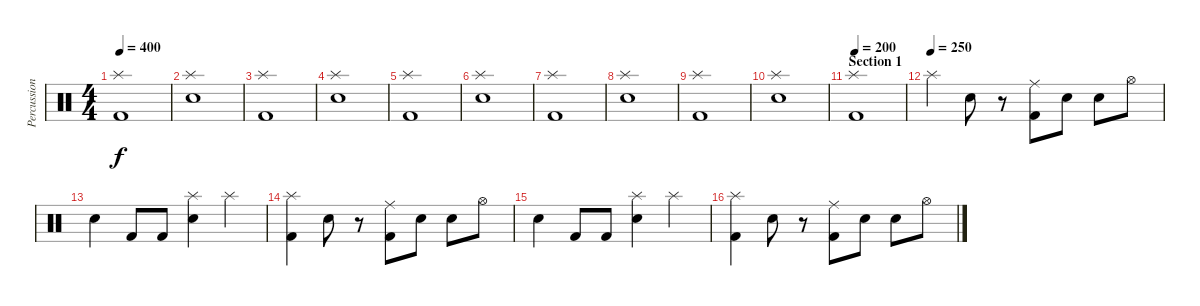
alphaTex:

\track ("Percussions2" "Percussion") {instrument percussion}
\staff {score}
\articulation defaults
\ts (4 4)
\tempo 400
\clef neutral
\ks c
("Splash (hit)" "Kick (hit) 2").1{dy f} |
("Snare (hit) 2" "Splash (hit)").1 |
("Splash (hit)" "Kick (hit) 2").1 |
("Snare (hit) 2" "Splash (hit)").1 |
("Splash (hit)" "Kick (hit) 2").1 |
("Snare (hit) 2" "Splash (hit)").1 |
("Splash (hit)" "Kick (hit) 2").1 |
("Snare (hit) 2" "Splash (hit)").1 |
("Splash (hit)" "Kick (hit) 2").1 |
("Snare (hit) 2" "Splash (hit)").1 |
\section ("" "Section 1")
\tempo 200
("Splash (hit)" "Kick (hit) 2").1 |
\tempo (250)
"Splash (hit)".4 "Snare (hit) 2".8 r.8 ("Kick (hit) 2" "Ride (middle)").8 "Snare (hit) 2".8 "Snare (hit) 2".8 "Hi-Hat (open)".8 |
"Snare (hit) 2".4 "Kick (hit) 2".8 "Kick (hit) 2".8 ("Snare (hit) 2" "Splash (hit)").4 "Splash (hit)".4 |
("Splash (hit)" "Kick (hit) 2").4 "Snare (hit) 2".8 r.8 ("Kick (hit) 2" "Ride (middle)").8 "Snare (hit) 2".8 "Snare (hit) 2".8 "Hi-Hat (open)".8 |
"Snare (hit) 2".4 "Kick (hit) 2".8 "Kick (hit) 2".8 ("Snare (hit) 2" "Splash (hit)").4 "Splash (hit)".4 |
("Splash (hit)" "Kick (hit) 2").4 "Snare (hit) 2".8 r.8 ("Kick (hit) 2" "Ride (middle)").8 "Snare (hit) 2".8 "Snare (hit) 2".8 "Hi-Hat (open)".8
